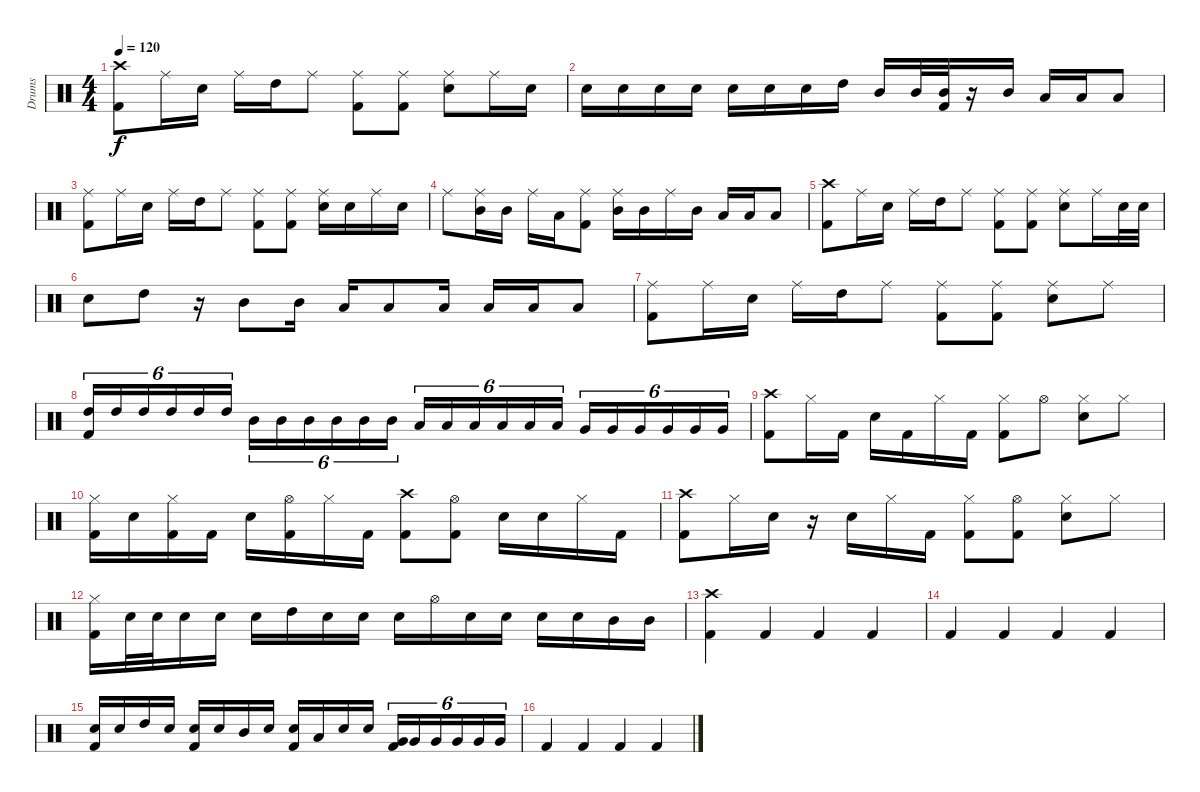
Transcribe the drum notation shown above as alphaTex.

\track ("Drums" "Drums") {instrument percussion}
\staff {score}
\articulation defaults
\ts (4 4)
\tempo 120
\clef neutral
\ks c
("Crash high (hit)" "Kick (hit) 2").8{dy f} "Ride (middle)".16 "Electric Snare (hit)".16 "Ride (middle)".16 "High Tom (hit)".16 "Ride (middle)".8 ("Ride (middle)" "Kick (hit) 2").8 ("Ride (middle)" "Kick (hit) 2").8 ("Ride (middle)" "Electric Snare (hit)").8 "Ride (middle)".16 "Electric Snare (hit)".16 |
"Electric Snare (hit)".16 "Electric Snare (hit)".16 "Electric Snare (hit)".16 "Electric Snare (hit)".16 "Electric Snare (hit)".16 "Electric Snare (hit)".16 "Electric Snare (hit)".16 "High Tom (hit)".16 "Mid Tom (hit)".16 "Mid Tom (hit)".32 ("Mid Tom (hit)" "Kick (hit) 2").32 r.16 "Mid Tom (hit)".16 "Low Tom (hit)".16 "Low Tom (hit)".16 "Low Tom (hit)".8 |
("Ride (middle)" "Kick (hit) 2").8 "Ride (middle)".16 "Electric Snare (hit)".16 "Ride (middle)".16 "High Tom (hit)".16 "Ride (middle)".8 ("Ride (middle)" "Kick (hit) 2").8 ("Ride (middle)" "Kick (hit) 2").8 ("Ride (middle)" "Electric Snare (hit)").16 "Electric Snare (hit)".16 "Ride (middle)".16 "Electric Snare (hit)".16 |
"Ride (middle)".8 ("Ride (middle)" "Mid Tom (hit)").16 "Mid Tom (hit)".16 "Ride (middle)".16 "Low Tom (hit)".16 ("Ride (middle)" "Kick (hit) 2").8 ("Ride (middle)" "Mid Tom (hit)").16 "Mid Tom (hit)".16 "Ride (middle)".16 "Mid Tom (hit)".16 "Low Tom (hit)".16 "Low Tom (hit)".16 "Low Tom (hit)".8 |
("Crash high (hit)" "Kick (hit) 2").8 "Ride (middle)".16 "Electric Snare (hit)".16 "Ride (middle)".16 "High Tom (hit)".16 "Ride (middle)".8 ("Ride (middle)" "Kick (hit) 2").8 ("Ride (middle)" "Kick (hit) 2").8 ("Ride (middle)" "Electric Snare (hit)").8 "Ride (middle)".16 "Electric Snare (hit)".32 "Electric Snare (hit)".32 |
"Electric Snare (hit)".8 "High Tom (hit)".8 r.16 "Mid Tom (hit)".8 "Mid Tom (hit)".16 "Low Tom (hit)".16 "Low Tom (hit)".8 "Low Tom (hit)".16 "Low Tom (hit)".16 "Low Tom (hit)".16 "Low Tom (hit)".8 |
("Ride (middle)" "Kick (hit) 2").8 "Ride (middle)".16 "Electric Snare (hit)".16 "Ride (middle)".16 "High Tom (hit)".16 "Ride (middle)".8 ("Ride (middle)" "Kick (hit) 2").8 ("Ride (middle)" "Kick (hit) 2").8 ("Ride (middle)" "Electric Snare (hit)").8 "Ride (middle)".8 |
("High Tom (hit)" "Kick (hit) 2").16{tu (6 4)} "High Tom (hit)".16{tu (6 4)} "High Tom (hit)".16{tu (6 4)} "High Tom (hit)".16{tu (6 4)} "High Tom (hit)".16{tu (6 4)} "High Tom (hit)".16{tu (6 4)} "Mid Tom (hit)".16{tu (6 4)} "Mid Tom (hit)".16{tu (6 4)} "Mid Tom (hit)".16{tu (6 4)} "Mid Tom (hit)".16{tu (6 4)} "Mid Tom (hit)".16{tu (6 4)} "Mid Tom (hit)".16{tu (6 4)} "Low Tom (hit)".16{tu (6 4)} "Low Tom (hit)".16{tu (6 4)} "Low Tom (hit)".16{tu (6 4)} "Low Tom (hit)".16{tu (6 4)} "Low Tom (hit)".16{tu (6 4)} "Low Tom (hit)".16{tu (6 4)} "Very Low Tom (hit)".16{tu (6 4)} "Very Low Tom (hit)".16{tu (6 4)} "Very Low Tom (hit)".16{tu (6 4)} "Very Low Tom (hit)".16{tu (6 4)} "Very Low Tom (hit)".16{tu (6 4)} "Very Low Tom (hit)".16{tu (6 4)} |
("Crash high (hit)" "Kick (hit) 2").8 "Hi-Hat (closed)".16 "Kick (hit) 2".16 "Electric Snare (hit)".16 "Kick (hit) 2".16 "Hi-Hat (closed)".16 "Kick (hit) 2".16 ("Hi-Hat (closed)" "Kick (hit) 2").8 "Hi-Hat (open)".8 ("Hi-Hat (closed)" "Electric Snare (hit)").8 "Hi-Hat (closed)".8 |
("Hi-Hat (closed)" "Kick (hit) 2").16 "Electric Snare (hit)".16 ("Hi-Hat (closed)" "Kick (hit) 2").16 "Kick (hit) 2".16 "Electric Snare (hit)".16 ("Hi-Hat (open)" "Kick (hit) 2").16 "Hi-Hat (closed)".16 "Kick (hit) 2".16 ("Crash high (hit)" "Kick (hit) 2").8 ("Hi-Hat (open)" "Kick (hit) 2").8 "Electric Snare (hit)".16 "Electric Snare (hit)".16 "Hi-Hat (closed)".16 "Kick (hit) 2".16 |
("Crash high (hit)" "Kick (hit) 2").8 "Hi-Hat (closed)".16 "Electric Snare (hit)".16 r.16 "Electric Snare (hit)".16 "Hi-Hat (closed)".16 "Kick (hit) 2".16 ("Hi-Hat (closed)" "Kick (hit) 2").8 ("Hi-Hat (open)" "Kick (hit) 2").8 ("Hi-Hat (closed)" "Electric Snare (hit)").8 "Hi-Hat (closed)".8 |
("Hi-Hat (closed)" "Kick (hit) 2").16 "Electric Snare (hit)".32 "Electric Snare (hit)".32 "Electric Snare (hit)".16 "Electric Snare (hit)".16 "Electric Snare (hit)".16 "High Tom (hit)".16 "Electric Snare (hit)".16 "Electric Snare (hit)".16 "Electric Snare (hit)".16 "Hi-Hat (open)".16 "Electric Snare (hit)".16 "Electric Snare (hit)".16 "Electric Snare (hit)".16 "Electric Snare (hit)".16 "Mid Tom (hit)".16 "Mid Tom (hit)".16 |
("Crash high (hit)" "Kick (hit) 2").4 "Kick (hit) 2".4 "Kick (hit) 2".4 "Kick (hit) 2".4 |
"Kick (hit) 2".4 "Kick (hit) 2".4 "Kick (hit) 2".4 "Kick (hit) 2".4 |
("Electric Snare (hit)" "Kick (hit) 2").16 "Electric Snare (hit)".16 "High Tom (hit)".16 "Electric Snare (hit)".16 ("Electric Snare (hit)" "Kick (hit) 2").16 "Electric Snare (hit)".16 "Mid Tom (hit)".16 "Electric Snare (hit)".16 ("Electric Snare (hit)" "Kick (hit) 2").16 "Low Tom (hit)".16 "Electric Snare (hit)".16 "Electric Snare (hit)".16 ("Very Low Tom (hit)" "Kick (hit) 2").16{tu (6 4)} "Very Low Tom (hit)".16{tu (6 4)} "Very Low Tom (hit)".16{tu (6 4)} "Very Low Tom (hit)".16{tu (6 4)} "Very Low Tom (hit)".16{tu (6 4)} "Very Low Tom (hit)".16{tu (6 4)} |
"Kick (hit) 2".4 "Kick (hit) 2".4 "Kick (hit) 2".4 "Kick (hit) 2".4
